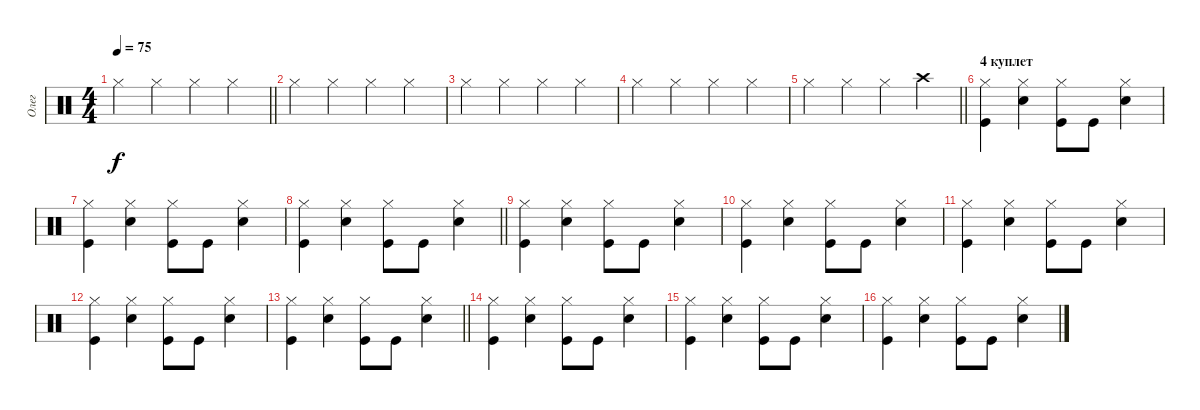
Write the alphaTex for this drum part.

\track ("Олег" "Олег") {instrument percussion}
\staff {score}
\articulation defaults
\ts (4 4)
\tempo 75
\clef neutral
\barLineRight lightlight
\ks c "Hi-Hat (closed)".4{dy f} "Hi-Hat (closed)".4 "Hi-Hat (closed)".4 "Hi-Hat (closed)".4
|
"Hi-Hat (closed)".4 "Hi-Hat (closed)".4 "Hi-Hat (closed)".4 "Hi-Hat (closed)".4 |
"Hi-Hat (closed)".4 "Hi-Hat (closed)".4 "Hi-Hat (closed)".4 "Hi-Hat (closed)".4 |
"Hi-Hat (closed)".4 "Hi-Hat (closed)".4 "Hi-Hat (closed)".4 "Hi-Hat (closed)".4 |
\barLineRight lightlight "Hi-Hat (closed)".4 "Hi-Hat (closed)".4 "Hi-Hat (closed)".4 "Crash high (hit)".4
|
\section ("" "4 куплет")
("Hi-Hat (closed)" "Kick (hit)").4 ("Hi-Hat (closed)" "Snare (hit) 2").4 ("Hi-Hat (closed)" "Kick (hit)").8 "Kick (hit)".8 ("Hi-Hat (closed)" "Snare (hit) 2").4 |
("Hi-Hat (closed)" "Kick (hit)").4 ("Hi-Hat (closed)" "Snare (hit) 2").4 ("Hi-Hat (closed)" "Kick (hit)").8 "Kick (hit)".8 ("Hi-Hat (closed)" "Snare (hit) 2").4 |
\barLineRight lightlight
("Hi-Hat (closed)" "Kick (hit)").4 ("Hi-Hat (closed)" "Snare (hit) 2").4 ("Hi-Hat (closed)" "Kick (hit)").8 "Kick (hit)".8 ("Hi-Hat (closed)" "Snare (hit) 2").4 |
("Hi-Hat (closed)" "Kick (hit)").4 ("Hi-Hat (closed)" "Snare (hit) 2").4 ("Hi-Hat (closed)" "Kick (hit)").8 "Kick (hit)".8 ("Hi-Hat (closed)" "Snare (hit) 2").4 |
("Hi-Hat (closed)" "Kick (hit)").4 ("Hi-Hat (closed)" "Snare (hit) 2").4 ("Hi-Hat (closed)" "Kick (hit)").8 "Kick (hit)".8 ("Hi-Hat (closed)" "Snare (hit) 2").4 |
("Hi-Hat (closed)" "Kick (hit)").4 ("Hi-Hat (closed)" "Snare (hit) 2").4 ("Hi-Hat (closed)" "Kick (hit)").8 "Kick (hit)".8 ("Hi-Hat (closed)" "Snare (hit) 2").4 |
("Hi-Hat (closed)" "Kick (hit)").4 ("Hi-Hat (closed)" "Snare (hit) 2").4 ("Hi-Hat (closed)" "Kick (hit)").8 "Kick (hit)".8 ("Hi-Hat (closed)" "Snare (hit) 2").4 |
\barLineRight lightlight
("Hi-Hat (closed)" "Kick (hit)").4 ("Hi-Hat (closed)" "Snare (hit) 2").4 ("Hi-Hat (closed)" "Kick (hit)").8 "Kick (hit)".8 ("Hi-Hat (closed)" "Snare (hit) 2").4 |
("Hi-Hat (closed)" "Kick (hit)").4 ("Hi-Hat (closed)" "Snare (hit) 2").4 ("Hi-Hat (closed)" "Kick (hit)").8 "Kick (hit)".8 ("Hi-Hat (closed)" "Snare (hit) 2").4 |
("Hi-Hat (closed)" "Kick (hit)").4 ("Hi-Hat (closed)" "Snare (hit) 2").4 ("Hi-Hat (closed)" "Kick (hit)").8 "Kick (hit)".8 ("Hi-Hat (closed)" "Snare (hit) 2").4 |
("Hi-Hat (closed)" "Kick (hit)").4 ("Hi-Hat (closed)" "Snare (hit) 2").4 ("Hi-Hat (closed)" "Kick (hit)").8 "Kick (hit)".8 ("Hi-Hat (closed)" "Snare (hit) 2").4
